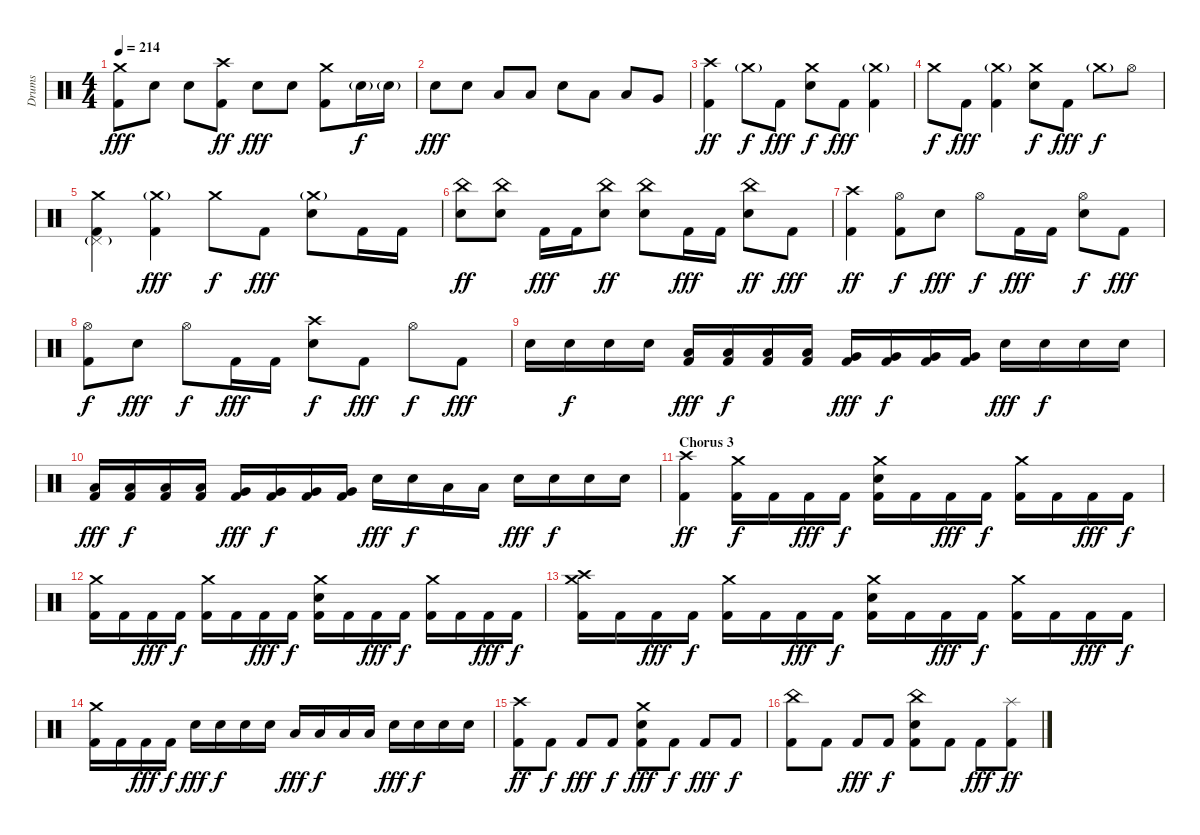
\track ("Drums" "Drums") {instrument percussion}
\staff {score}
\articulation defaults
\ts (4 4)
\tempo 214
\clef neutral
\ks c
("Crash medium (hit)" "Kick (hit) 2").8{dy fff} "Snare (hit) 2".8 "Snare (hit) 2".8 ("Crash high (hit)" "Kick (hit) 2").8{dy ff} "Snare (hit) 2".8{dy fff} "Snare (hit) 2".8 ("Crash medium (hit)" "Kick (hit) 2").8 "Snare (hit) 2"{g}.16{dy f} "Snare (hit) 2"{g}.16 |
"Snare (hit) 2".8{dy fff} "Snare (hit) 2".8 "Low Tom (hit)".8 "Low Tom (hit)".8 "Snare (hit) 2".8 "Low Tom (hit)".8 "Low Tom (hit)".8 "Very Low Tom (hit)".8 |
("Crash high (hit)" "Kick (hit) 2").4{dy ff} "Crash medium (hit)"{g}.8{dy f} "Kick (hit) 2".8{dy fff} ("Crash medium (hit)" "Snare (hit) 2").8{dy f} "Kick (hit) 2".8{dy fff} ("Crash medium (hit)"{g} "Kick (hit) 2").4 |
"Crash medium (hit)".8{dy f} "Kick (hit) 2".8{dy fff} ("Crash medium (hit)"{g} "Kick (hit) 2").4 ("Crash medium (hit)" "Snare (hit) 2").8{dy f} "Kick (hit) 2".8{dy fff} "Crash medium (hit)"{g}.8{dy f} "Hi-Hat (open)".8 |
("Crash medium (hit)" "Pedal Hi-Hat (hit)"{g} "Kick (hit) 2").4 ("Crash medium (hit)"{g} "Kick (hit) 2").4{dy fff} "Crash medium (hit)".8{dy f} "Kick (hit) 2".8{dy fff} ("Crash medium (hit)"{g} "Snare (hit) 2").8 "Kick (hit) 2".16 "Kick (hit) 2".16 |
("China (hit)" "Snare (hit) 2").8{dy ff} ("China (hit)" "Snare (hit) 2").8 "Kick (hit) 2".16{dy fff} "Kick (hit) 2".16 ("China (hit)" "Snare (hit) 2").8{dy ff} ("China (hit)" "Snare (hit) 2").8 "Kick (hit) 2".16{dy fff} "Kick (hit) 2".16 ("China (hit)" "Snare (hit) 2").8{dy ff} "Kick (hit) 2".8{dy fff} |
("Crash high (hit)" "Kick (hit) 2").4{dy ff} ("Hi-Hat (open)" "Kick (hit) 2").8{dy f} "Snare (hit) 2".8{dy fff} "Hi-Hat (open)".8{dy f} "Kick (hit) 2".16{dy fff} "Kick (hit) 2".16 ("Hi-Hat (open)" "Snare (hit) 2").8{dy f} "Kick (hit) 2".8{dy fff} |
("Hi-Hat (open)" "Kick (hit) 2").8{dy f} "Snare (hit) 2".8{dy fff} "Hi-Hat (open)".8{dy f} "Kick (hit) 2".16{dy fff} "Kick (hit) 2".16 ("Crash high (hit)" "Snare (hit) 2").8{dy f} "Kick (hit) 2".8{dy fff} "Hi-Hat (open)".8{dy f} "Kick (hit) 2".8{dy fff} |
"Snare (hit) 2".16 "Snare (hit) 2".16{dy f} "Snare (hit) 2".16 "Snare (hit) 2".16 ("Low Tom (hit)" "Kick (hit) 2").16{dy fff} ("Low Tom (hit)" "Kick (hit) 2").16{dy f} ("Low Tom (hit)" "Kick (hit) 2").16 ("Low Tom (hit)" "Kick (hit) 2").16 ("Very Low Tom (hit)" "Kick (hit) 2").16{dy fff} ("Very Low Tom (hit)" "Kick (hit) 2").16{dy f} ("Very Low Tom (hit)" "Kick (hit) 2").16 ("Very Low Tom (hit)" "Kick (hit) 2").16 "Snare (hit) 2".16{dy fff} "Snare (hit) 2".16{dy f} "Snare (hit) 2".16 "Snare (hit) 2".16 |
("Low Tom (hit)" "Kick (hit) 2").16{dy fff} ("Low Tom (hit)" "Kick (hit) 2").16{dy f} ("Low Tom (hit)" "Kick (hit) 2").16 ("Low Tom (hit)" "Kick (hit) 2").16 ("Very Low Tom (hit)" "Kick (hit) 2").16{dy fff} ("Very Low Tom (hit)" "Kick (hit) 2").16{dy f} ("Very Low Tom (hit)" "Kick (hit) 2").16 ("Very Low Tom (hit)" "Kick (hit) 2").16 "Snare (hit) 2".16{dy fff} "Snare (hit) 2".16{dy f} "Low Tom (hit)".16 "Low Tom (hit)".16 "Snare (hit) 2".16{dy fff} "Snare (hit) 2".16{dy f} "Snare (hit) 2".16 "Snare (hit) 2".16 |
\section ("" "Chorus 3")
("Crash high (hit)" "Kick (hit) 2").4{dy ff} ("Crash medium (hit)" "Kick (hit) 2").16{dy f} "Kick (hit) 2".16 "Kick (hit) 2".16{dy fff} "Kick (hit) 2".16{dy f} ("Crash medium (hit)" "Snare (hit) 2" "Kick (hit) 2").16 "Kick (hit) 2".16 "Kick (hit) 2".16{dy fff} "Kick (hit) 2".16{dy f} ("Crash medium (hit)" "Kick (hit) 2").16 "Kick (hit) 2".16 "Kick (hit) 2".16{dy fff} "Kick (hit) 2".16{dy f} |
("Crash medium (hit)" "Kick (hit) 2").16 "Kick (hit) 2".16 "Kick (hit) 2".16{dy fff} "Kick (hit) 2".16{dy f} ("Crash medium (hit)" "Kick (hit) 2").16 "Kick (hit) 2".16 "Kick (hit) 2".16{dy fff} "Kick (hit) 2".16{dy f} ("Crash medium (hit)" "Snare (hit) 2" "Kick (hit) 2").16 "Kick (hit) 2".16 "Kick (hit) 2".16{dy fff} "Kick (hit) 2".16{dy f} ("Crash medium (hit)" "Kick (hit) 2").16 "Kick (hit) 2".16 "Kick (hit) 2".16{dy fff} "Kick (hit) 2".16{dy f} |
("Crash medium (hit)" "Crash high (hit)" "Kick (hit) 2").16 "Kick (hit) 2".16 "Kick (hit) 2".16{dy fff} "Kick (hit) 2".16{dy f} ("Crash medium (hit)" "Kick (hit) 2").16 "Kick (hit) 2".16 "Kick (hit) 2".16{dy fff} "Kick (hit) 2".16{dy f} ("Crash medium (hit)" "Snare (hit) 2" "Kick (hit) 2").16 "Kick (hit) 2".16 "Kick (hit) 2".16{dy fff} "Kick (hit) 2".16{dy f} ("Crash medium (hit)" "Kick (hit) 2").16 "Kick (hit) 2".16 "Kick (hit) 2".16{dy fff} "Kick (hit) 2".16{dy f} |
("Crash medium (hit)" "Kick (hit) 2").16 "Kick (hit) 2".16 "Kick (hit) 2".16{dy fff} "Kick (hit) 2".16{dy f} "Snare (hit) 2".16{dy fff} "Snare (hit) 2".16{dy f} "Snare (hit) 2".16 "Snare (hit) 2".16 "Low Tom (hit)".16{dy fff} "Low Tom (hit)".16{dy f} "Low Tom (hit)".16 "Low Tom (hit)".16 "Snare (hit) 2".16{dy fff} "Snare (hit) 2".16{dy f} "Snare (hit) 2".16 "Snare (hit) 2".16 |
("Crash high (hit)" "Kick (hit) 2").8{dy ff} "Kick (hit) 2".8{dy f} "Kick (hit) 2".8{dy fff} "Kick (hit) 2".8{dy f} ("Crash medium (hit)" "Snare (hit) 2" "Kick (hit) 2").8{dy fff} "Kick (hit) 2".8{dy f} "Kick (hit) 2".8{dy fff} "Kick (hit) 2".8{dy f} |
("China (hit)" "Kick (hit) 2").8 "Kick (hit) 2".8 "Kick (hit) 2".8{dy fff} "Kick (hit) 2".8{dy f} ("China (hit)" "Snare (hit) 2" "Kick (hit) 2").8 "Kick (hit) 2".8 "Kick (hit) 2".8{dy fff} ("Splash (hit)" "Kick (hit) 2").8{dy ff}
